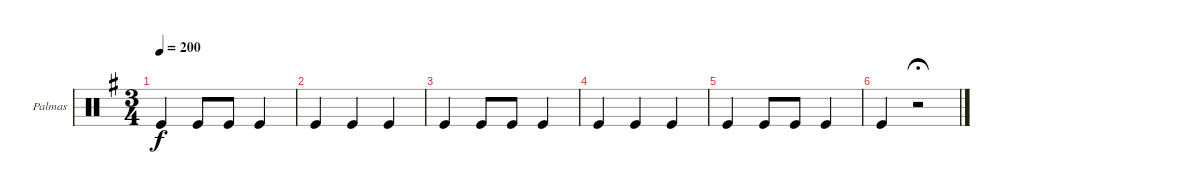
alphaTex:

\defaultSystemsLayout 4
\bracketExtendMode groupsimilarinstruments
\firstSystemTrackNameOrientation horizontal
\otherSystemsTrackNameOrientation horizontal
\track ("Palmas" "Palmas") {instrument percussion}
\staff {score}
\articulation defaults
\ts (3 4)
\tempo 200
\clef neutral
\ks g "Kick (hit)".4{dy f} "Kick (hit)".8 "Kick (hit)".8 "Kick (hit)".4
|
"Kick (hit)".4 "Kick (hit)".4 "Kick (hit)".4 |
"Kick (hit)".4 "Kick (hit)".8 "Kick (hit)".8 "Kick (hit)".4 |
"Kick (hit)".4 "Kick (hit)".4 "Kick (hit)".4 |
"Kick (hit)".4 "Kick (hit)".8 "Kick (hit)".8 "Kick (hit)".4 |
"Kick (hit)".4 r.2{fermata (medium 1)}
